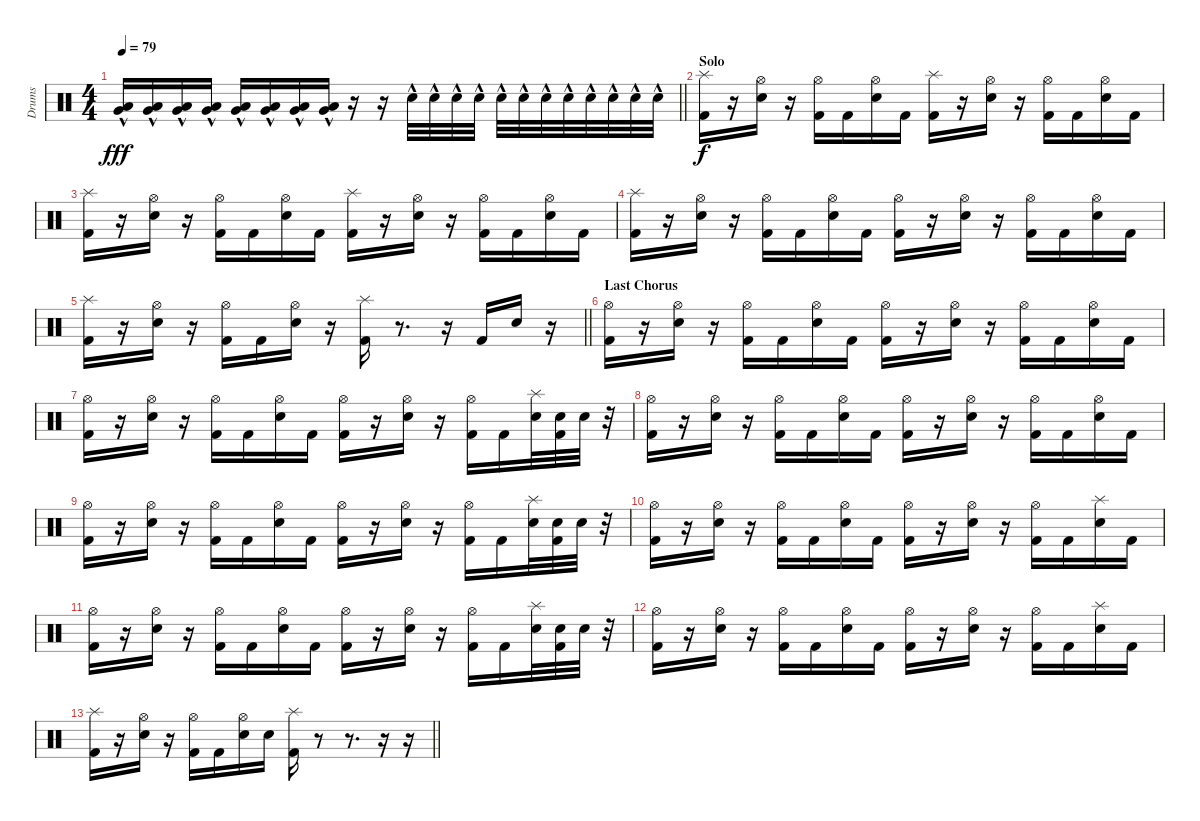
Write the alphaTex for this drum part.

\track ("Drums" "Drums") {instrument percussion}
\staff {score}
\articulation defaults
\ts (4 4)
\tempo 79
\clef neutral
\barLineRight lightlight
\ks c
("Very Low Tom (hit)"{hac} "Low Floor Tom (hit)"{hac}).16{dy fff} ("Very Low Tom (hit)"{hac} "Low Floor Tom (hit)"{hac}).16 ("Very Low Tom (hit)"{hac} "Low Floor Tom (hit)"{hac}).16 ("Very Low Tom (hit)"{hac} "Low Floor Tom (hit)"{hac}).16 ("Very Low Tom (hit)"{hac} "Low Floor Tom (hit)"{hac}).16 ("Very Low Tom (hit)"{hac} "Low Floor Tom (hit)"{hac}).16 ("Very Low Tom (hit)"{hac} "Low Floor Tom (hit)"{hac}).16 ("Very Low Tom (hit)"{hac} "Low Floor Tom (hit)"{hac}).16 r.16 r.16 "Electric Snare (hit)"{hac}.32 "Electric Snare (hit)"{hac}.32 "Electric Snare (hit)"{hac}.32 "Electric Snare (hit)"{hac}.32 "Electric Snare (hit)"{hac}.32 "Electric Snare (hit)"{hac}.32 "Electric Snare (hit)"{hac}.32 "Electric Snare (hit)"{hac}.32 "Electric Snare (hit)"{hac}.32 "Electric Snare (hit)"{hac}.32 "Electric Snare (hit)"{hac}.32 "Electric Snare (hit)"{hac}.32 |
\section ("" "Solo")
("Splash (hit)" "Kick (hit) 2").16{dy f} r.16 ("Hi-Hat (open)" "Electric Snare (hit)").16 r.16 ("Hi-Hat (open)" "Kick (hit) 2").16 "Kick (hit) 2".16 ("Hi-Hat (open)" "Electric Snare (hit)").16 "Kick (hit) 2".16 ("Splash (hit)" "Kick (hit) 2").16 r.16 ("Hi-Hat (open)" "Electric Snare (hit)").16 r.16 ("Hi-Hat (open)" "Kick (hit) 2").16 "Kick (hit) 2".16 ("Hi-Hat (open)" "Electric Snare (hit)").16 "Kick (hit) 2".16 |
("Splash (hit)" "Kick (hit) 2").16 r.16 ("Hi-Hat (open)" "Electric Snare (hit)").16 r.16 ("Hi-Hat (open)" "Kick (hit) 2").16 "Kick (hit) 2".16 ("Hi-Hat (open)" "Electric Snare (hit)").16 "Kick (hit) 2".16 ("Splash (hit)" "Kick (hit) 2").16 r.16 ("Hi-Hat (open)" "Electric Snare (hit)").16 r.16 ("Hi-Hat (open)" "Kick (hit) 2").16 "Kick (hit) 2".16 ("Hi-Hat (open)" "Electric Snare (hit)").16 "Kick (hit) 2".16 |
("Splash (hit)" "Kick (hit) 2").16 r.16 ("Hi-Hat (open)" "Electric Snare (hit)").16 r.16 ("Hi-Hat (open)" "Kick (hit) 2").16 "Kick (hit) 2".16 ("Hi-Hat (open)" "Electric Snare (hit)").16 "Kick (hit) 2".16 ("Hi-Hat (open)" "Kick (hit) 2").16 r.16 ("Hi-Hat (open)" "Electric Snare (hit)").16 r.16 ("Hi-Hat (open)" "Kick (hit) 2").16 "Kick (hit) 2".16 ("Hi-Hat (open)" "Electric Snare (hit)").16 "Kick (hit) 2".16 |
\barLineRight lightlight
("Splash (hit)" "Kick (hit) 2").16 r.16 ("Hi-Hat (open)" "Electric Snare (hit)").16 r.16 ("Hi-Hat (open)" "Kick (hit) 2").16 "Kick (hit) 2".16 ("Hi-Hat (open)" "Electric Snare (hit)").16 r.16 ("Splash (hit)" "Kick (hit) 2").16 r.8{d} r.16 "Kick (hit) 2".16 "Electric Snare (hit)".16 r.16 |
\section ("" "Last Chorus")
("Hi-Hat (open)" "Kick (hit) 2").16 r.16 ("Hi-Hat (open)" "Electric Snare (hit)").16 r.16 ("Hi-Hat (open)" "Kick (hit) 2").16 "Kick (hit) 2".16 ("Hi-Hat (open)" "Electric Snare (hit)").16 "Kick (hit) 2".16 ("Hi-Hat (open)" "Kick (hit) 2").16 r.16 ("Hi-Hat (open)" "Electric Snare (hit)").16 r.16 ("Hi-Hat (open)" "Kick (hit) 2").16 "Kick (hit) 2".16 ("Hi-Hat (open)" "Electric Snare (hit)").16 "Kick (hit) 2".16 |
("Hi-Hat (open)" "Kick (hit) 2").16 r.16 ("Hi-Hat (open)" "Electric Snare (hit)").16 r.16 ("Hi-Hat (open)" "Kick (hit) 2").16 "Kick (hit) 2".16 ("Hi-Hat (open)" "Electric Snare (hit)").16 "Kick (hit) 2".16 ("Hi-Hat (open)" "Kick (hit) 2").16 r.16 ("Hi-Hat (open)" "Electric Snare (hit)").16 r.16 ("Hi-Hat (open)" "Kick (hit) 2").16 "Kick (hit) 2".16 ("Splash (hit)" "Electric Snare (hit)").32 ("Electric Snare (hit)" "Kick (hit) 2").32 "Electric Snare (hit)".32 r.32 |
("Hi-Hat (open)" "Kick (hit) 2").16 r.16 ("Hi-Hat (open)" "Electric Snare (hit)").16 r.16 ("Hi-Hat (open)" "Kick (hit) 2").16 "Kick (hit) 2".16 ("Hi-Hat (open)" "Electric Snare (hit)").16 "Kick (hit) 2".16 ("Hi-Hat (open)" "Kick (hit) 2").16 r.16 ("Hi-Hat (open)" "Electric Snare (hit)").16 r.16 ("Hi-Hat (open)" "Kick (hit) 2").16 "Kick (hit) 2".16 ("Hi-Hat (open)" "Electric Snare (hit)").16 "Kick (hit) 2".16 |
("Hi-Hat (open)" "Kick (hit) 2").16 r.16 ("Hi-Hat (open)" "Electric Snare (hit)").16 r.16 ("Hi-Hat (open)" "Kick (hit) 2").16 "Kick (hit) 2".16 ("Hi-Hat (open)" "Electric Snare (hit)").16 "Kick (hit) 2".16 ("Hi-Hat (open)" "Kick (hit) 2").16 r.16 ("Hi-Hat (open)" "Electric Snare (hit)").16 r.16 ("Hi-Hat (open)" "Kick (hit) 2").16 "Kick (hit) 2".16 ("Splash (hit)" "Electric Snare (hit)").32 ("Electric Snare (hit)" "Kick (hit) 2").32 "Electric Snare (hit)".32 r.32 |
("Hi-Hat (open)" "Kick (hit) 2").16 r.16 ("Hi-Hat (open)" "Electric Snare (hit)").16 r.16 ("Hi-Hat (open)" "Kick (hit) 2").16 "Kick (hit) 2".16 ("Hi-Hat (open)" "Electric Snare (hit)").16 "Kick (hit) 2".16 ("Hi-Hat (open)" "Kick (hit) 2").16 r.16 ("Hi-Hat (open)" "Electric Snare (hit)").16 r.16 ("Hi-Hat (open)" "Kick (hit) 2").16 "Kick (hit) 2".16 ("Splash (hit)" "Electric Snare (hit)").16 "Kick (hit) 2".16 |
("Hi-Hat (open)" "Kick (hit) 2").16 r.16 ("Hi-Hat (open)" "Electric Snare (hit)").16 r.16 ("Hi-Hat (open)" "Kick (hit) 2").16 "Kick (hit) 2".16 ("Hi-Hat (open)" "Electric Snare (hit)").16 "Kick (hit) 2".16 ("Hi-Hat (open)" "Kick (hit) 2").16 r.16 ("Hi-Hat (open)" "Electric Snare (hit)").16 r.16 ("Hi-Hat (open)" "Kick (hit) 2").16 "Kick (hit) 2".16 ("Splash (hit)" "Electric Snare (hit)").32 ("Electric Snare (hit)" "Kick (hit) 2").32 "Electric Snare (hit)".32 r.32 |
("Hi-Hat (open)" "Kick (hit) 2").16 r.16 ("Hi-Hat (open)" "Electric Snare (hit)").16 r.16 ("Hi-Hat (open)" "Kick (hit) 2").16 "Kick (hit) 2".16 ("Hi-Hat (open)" "Electric Snare (hit)").16 "Kick (hit) 2".16 ("Hi-Hat (open)" "Kick (hit) 2").16 r.16 ("Hi-Hat (open)" "Electric Snare (hit)").16 r.16 ("Hi-Hat (open)" "Kick (hit) 2").16 "Kick (hit) 2".16 ("Splash (hit)" "Electric Snare (hit)").16 "Kick (hit) 2".16 |
\barLineRight lightlight
("Splash (hit)" "Kick (hit) 2").16 r.16 ("Hi-Hat (open)" "Electric Snare (hit)").16 r.16 ("Hi-Hat (open)" "Kick (hit) 2").16 "Kick (hit) 2".16 ("Hi-Hat (open)" "Electric Snare (hit)").16 "Electric Snare (hit)".16 ("Splash (hit)" "Kick (hit) 2").16 r.8 r.8{d} r.16 r.16
